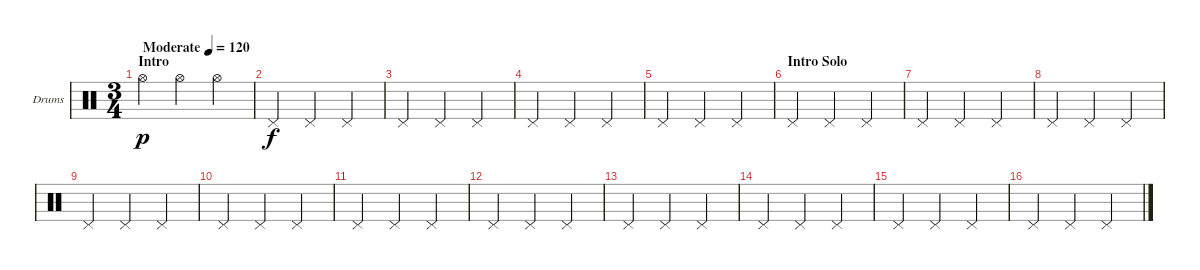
\bracketExtendMode groupsimilarinstruments
\firstSystemTrackNameOrientation horizontal
\otherSystemsTrackNameOrientation horizontal
\track ("Drumkit" "Drums") {instrument percussion}
\staff {score}
\articulation defaults
\ts (3 4)
\beaming (8 2 2 2)
\section ("" "Intro")
\tempo (120 "Moderate")
\clef neutral
\ks c "Hi-Hat (open)".4{dy p} "Hi-Hat (open)".4 "Hi-Hat (open)".4
|
"Pedal Hi-Hat (hit)".4{dy f} "Pedal Hi-Hat (hit)".4 "Pedal Hi-Hat (hit)".4 |
"Pedal Hi-Hat (hit)".4 "Pedal Hi-Hat (hit)".4 "Pedal Hi-Hat (hit)".4 |
"Pedal Hi-Hat (hit)".4 "Pedal Hi-Hat (hit)".4 "Pedal Hi-Hat (hit)".4 |
"Pedal Hi-Hat (hit)".4 "Pedal Hi-Hat (hit)".4 "Pedal Hi-Hat (hit)".4 |
\section ("" "Intro Solo")
"Pedal Hi-Hat (hit)".4 "Pedal Hi-Hat (hit)".4 "Pedal Hi-Hat (hit)".4 |
"Pedal Hi-Hat (hit)".4 "Pedal Hi-Hat (hit)".4 "Pedal Hi-Hat (hit)".4 |
"Pedal Hi-Hat (hit)".4 "Pedal Hi-Hat (hit)".4 "Pedal Hi-Hat (hit)".4 |
"Pedal Hi-Hat (hit)".4 "Pedal Hi-Hat (hit)".4 "Pedal Hi-Hat (hit)".4 |
"Pedal Hi-Hat (hit)".4 "Pedal Hi-Hat (hit)".4 "Pedal Hi-Hat (hit)".4 |
"Pedal Hi-Hat (hit)".4 "Pedal Hi-Hat (hit)".4 "Pedal Hi-Hat (hit)".4 |
"Pedal Hi-Hat (hit)".4 "Pedal Hi-Hat (hit)".4 "Pedal Hi-Hat (hit)".4 |
"Pedal Hi-Hat (hit)".4 "Pedal Hi-Hat (hit)".4 "Pedal Hi-Hat (hit)".4 |
"Pedal Hi-Hat (hit)".4 "Pedal Hi-Hat (hit)".4 "Pedal Hi-Hat (hit)".4 |
"Pedal Hi-Hat (hit)".4 "Pedal Hi-Hat (hit)".4 "Pedal Hi-Hat (hit)".4 |
"Pedal Hi-Hat (hit)".4 "Pedal Hi-Hat (hit)".4 "Pedal Hi-Hat (hit)".4
